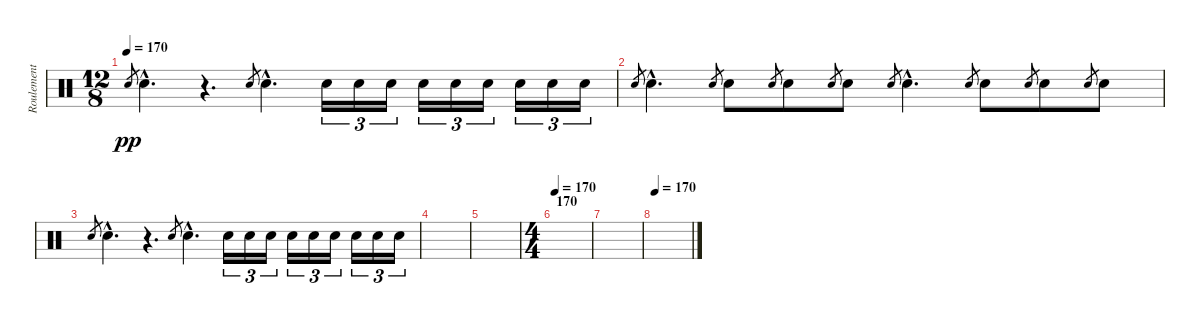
\track ("Roulement" "Roulement") {instrument percussion}
\staff {score}
\articulation defaults
\ts (12 8)
\tempo 170
\clef neutral
\ks c "Electric Snare (hit)".8{gr dy pp} "Electric Snare (hit)"{hac}.4{d}
r.4{d} "Electric Snare (hit)".8{gr} "Electric Snare (hit)"{hac}.4{d} "Electric Snare (hit)".16{tu (3 2)} "Electric Snare (hit)".16{tu (3 2)} "Electric Snare (hit)".16{tu (3 2)} "Electric Snare (hit)".16{tu (3 2)} "Electric Snare (hit)".16{tu (3 2)} "Electric Snare (hit)".16{tu (3 2)} "Electric Snare (hit)".16{tu (3 2)} "Electric Snare (hit)".16{tu (3 2)} "Electric Snare (hit)".16{tu (3 2)} |
"Electric Snare (hit)".8{gr} "Electric Snare (hit)"{hac}.4{d} "Electric Snare (hit)".8{gr} "Electric Snare (hit)".8 "Electric Snare (hit)".8{gr} "Electric Snare (hit)".8 "Electric Snare (hit)".8{gr} "Electric Snare (hit)".8 "Electric Snare (hit)".8{gr} "Electric Snare (hit)"{hac}.4{d} "Electric Snare (hit)".8{gr} "Electric Snare (hit)".8 "Electric Snare (hit)".8{gr} "Electric Snare (hit)".8 "Electric Snare (hit)".8{gr} "Electric Snare (hit)".8 |
"Electric Snare (hit)".8{gr} "Electric Snare (hit)"{hac}.4{d} r.4{d} "Electric Snare (hit)".8{gr} "Electric Snare (hit)"{hac}.4{d} "Electric Snare (hit)".16{tu (3 2)} "Electric Snare (hit)".16{tu (3 2)} "Electric Snare (hit)".16{tu (3 2)} "Electric Snare (hit)".16{tu (3 2)} "Electric Snare (hit)".16{tu (3 2)} "Electric Snare (hit)".16{tu (3 2)} "Electric Snare (hit)".16{tu (3 2)} "Electric Snare (hit)".16{tu (3 2)} "Electric Snare (hit)".16{tu (3 2)} |
|
|
\ts (4 4)
\section ("" "170")
\tempo 170
|
|
\tempo 170
